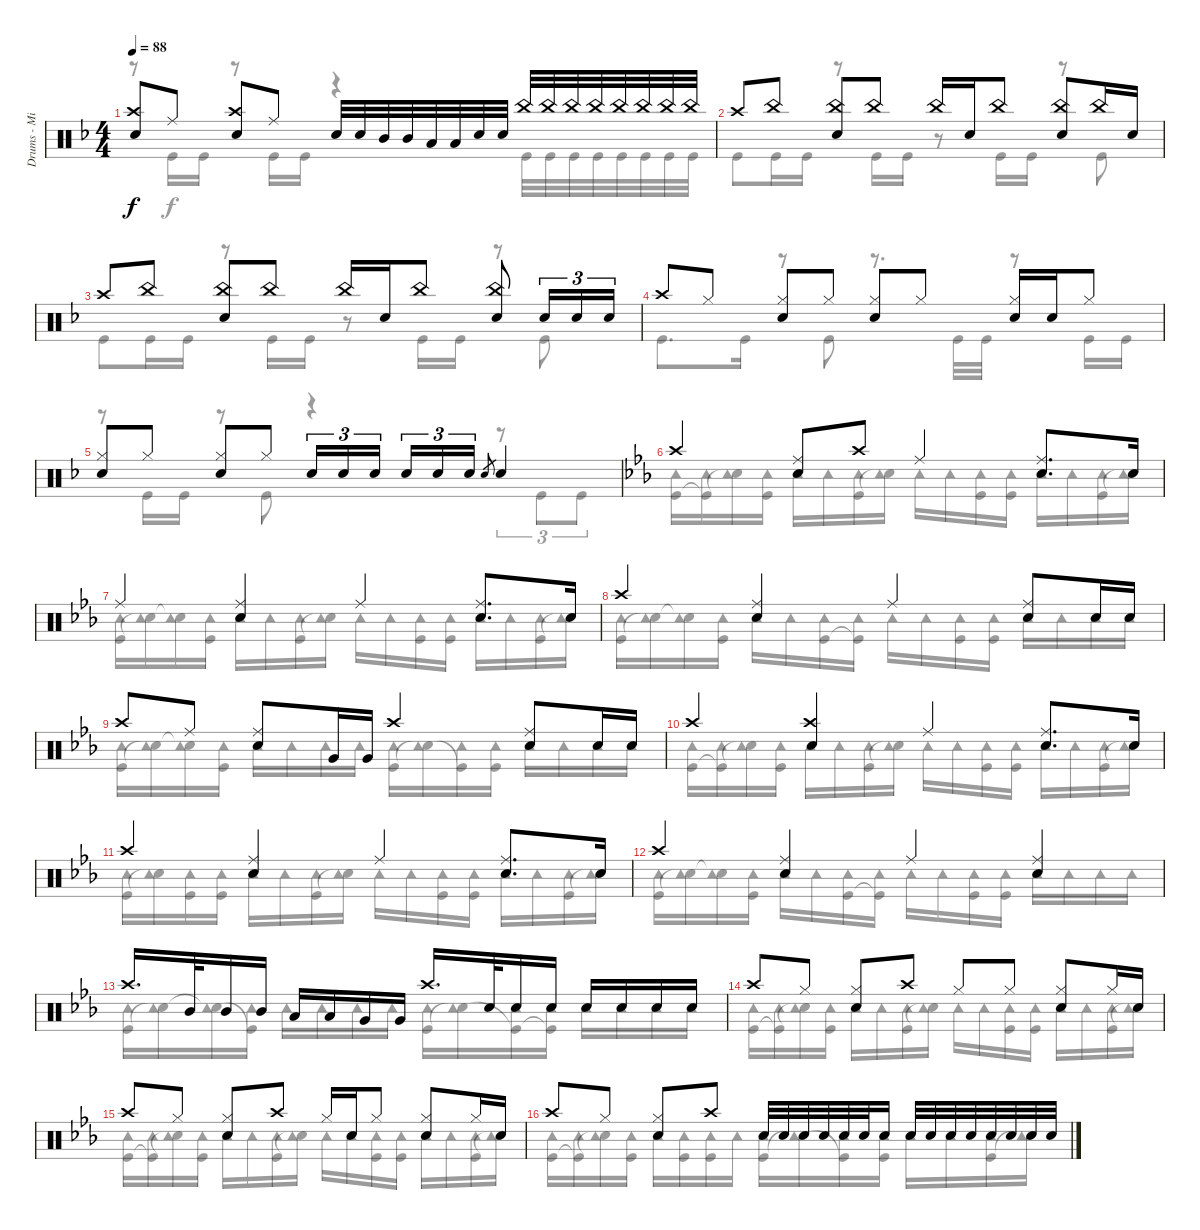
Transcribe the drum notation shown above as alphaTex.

\track ("Drums - Mike Portnoy" "Drums - Mi") {instrument percussion}
\staff {score}
\articulation defaults
\voice
\ts (4 4)
\tempo 88
\clef neutral
\ks f
("Crash high (hit)" "Snare (hit) 2").8{dy f} "Ride (middle)".8 ("Crash high (hit)" "Snare (hit) 2").8 "Ride (middle)".8 "Snare (hit) 2".32 "Snare (hit) 2".32 "Mid Tom (hit)".32 "Mid Tom (hit)".32 "Low Tom (hit)".32 "Low Tom (hit)".32 "Snare (hit) 2".32 "Snare (hit) 2".32 "China (hit)".32 "China (hit)".32 "China (hit)".32 "China (hit)".32 "China (hit)".32 "China (hit)".32 "China (hit)".32 "China (hit)".32 |
"Crash high (hit)".8 "China (hit)".8 ("China (hit)" "Snare (hit) 2").8 "China (hit)".8 "China (hit)".16 "Snare (hit) 2".16 "China (hit)".8 ("China (hit)" "Snare (hit) 2").8 "China (hit)".16 "Snare (hit) 2".16 |
"Crash high (hit)".8 "China (hit)".8 ("China (hit)" "Snare (hit) 2").8 "China (hit)".8 "China (hit)".16 "Snare (hit) 2".16 "China (hit)".8 ("China (hit)" "Snare (hit) 2").8 "Snare (hit) 2".16{tu (3 2)} "Snare (hit) 2".16{tu (3 2)} "Snare (hit) 2".16{tu (3 2)} |
"Crash high (hit)".8 "Hi-Hat (closed)".8 ("Hi-Hat (closed)" "Snare (hit) 2").8 "Hi-Hat (closed)".8 ("Hi-Hat (closed)" "Snare (hit) 2").8 "Hi-Hat (closed)".8 ("Hi-Hat (closed)" "Snare (hit) 2").16 "Snare (hit) 2".16 "Hi-Hat (closed)".8 |
("Hi-Hat (closed)" "Snare (hit) 2").8 "Hi-Hat (closed)".8 ("Hi-Hat (closed)" "Snare (hit) 2").8 "Hi-Hat (closed)".8 "Snare (hit) 2".16{tu (3 2)} "Snare (hit) 2".16{tu (3 2)} "Snare (hit) 2".16{tu (3 2) beam splitsecondary} "Snare (hit) 2".16{tu (3 2)} "Snare (hit) 2".16{tu (3 2)} "Snare (hit) 2".16{tu (3 2)} "Snare (hit) 2".8{gr} "Snare (hit) 2".4 |
\ks eb "Crash high (hit)".4
("Ride (middle)" "Snare (hit) 2").8 "Crash high (hit)".8 "Ride (middle)".4 ("Ride (middle)" "Snare (hit) 2").8{d} "Snare (hit) 2".16 |
"Ride (middle)".4 ("Ride (middle)" "Snare (hit) 2").4 "Ride (middle)".4 ("Ride (middle)" "Snare (hit) 2").8{d} "Snare (hit) 2".16 |
"Crash high (hit)".4 ("Ride (middle)" "Snare (hit) 2").4 "Ride (middle)".4 ("Ride (middle)" "Snare (hit) 2").8 "Snare (hit) 2".16 "Snare (hit) 2".16 |
"Crash high (hit)".8 "Ride (middle)".8 ("Ride (middle)" "Snare (hit) 2").8 "Very Low Tom (hit)".16 "Very Low Tom (hit)".16 "Crash high (hit)".4 ("Ride (middle)" "Snare (hit) 2").8 "Snare (hit) 2".16 "Snare (hit) 2".16 |
"Crash high (hit)".4 ("Crash high (hit)" "Snare (hit) 2").4 "Ride (middle)".4 ("Ride (middle)" "Snare (hit) 2").8{d} "Snare (hit) 2".16 |
"Crash high (hit)".4 ("Ride (middle)" "Snare (hit) 2").4 "Ride (middle)".4 ("Ride (middle)" "Snare (hit) 2").8{d} "Snare (hit) 2".16 |
"Crash high (hit)".4 ("Ride (middle)" "Snare (hit) 2").4 "Ride (middle)".4 ("Ride (middle)" "Snare (hit) 2").4 |
"Crash high (hit)".16{d} "Mid Tom (hit)".32 "Mid Tom (hit)".16 "Mid Tom (hit)".16 "Low Tom (hit)".16 "Low Tom (hit)".16 "Very Low Tom (hit)".16 "Very Low Tom (hit)".16 "Crash high (hit)".16{d} "Snare (hit) 2".32 "Snare (hit) 2".16 "Snare (hit) 2".16 "Snare (hit) 2".16 "Snare (hit) 2".16 "Snare (hit) 2".16 "Snare (hit) 2".16 |
"Crash high (hit)".8 "Hi-Hat (closed)".8 ("Hi-Hat (closed)" "Snare (hit) 2").8 "Crash high (hit)".8 "Hi-Hat (closed)".8 "Hi-Hat (closed)".8 ("Hi-Hat (closed)" "Snare (hit) 2").8 "Hi-Hat (closed)".16 "Snare (hit) 2".16 |
"Crash high (hit)".8 "Hi-Hat (closed)".8 ("Hi-Hat (closed)" "Snare (hit) 2").8 "Crash high (hit)".8 "Hi-Hat (closed)".16 "Snare (hit) 2".16 "Hi-Hat (closed)".8 ("Hi-Hat (closed)" "Snare (hit) 2").8 "Hi-Hat (closed)".16 "Snare (hit) 2".16 |
"Crash high (hit)".8 "Hi-Hat (closed)".8 ("Hi-Hat (closed)" "Snare (hit) 2").8 "Crash high (hit)".8 "Snare (hit) 2".32 "Snare (hit) 2".32 "Snare (hit) 2".32 "Snare (hit) 2".32 "Snare (hit) 2".32 "Snare (hit) 2".32 "Snare (hit) 2".16 "Snare (hit) 2".32 "Snare (hit) 2".32 "Snare (hit) 2".32 "Snare (hit) 2".32 "Snare (hit) 2".32 "Snare (hit) 2".32 "Snare (hit) 2".32 "Snare (hit) 2".32
\voice
\clef neutral
\ottava regular
\simile none
\ks f
r.8{dy f} "Kick (hit)".16 "Kick (hit)".16 r.8 "Kick (hit)".16 "Kick (hit)".16 r.4 "Kick (hit)".32 "Kick (hit)".32 "Kick (hit)".32 "Kick (hit)".32 "Kick (hit)".32 "Kick (hit)".32 "Kick (hit)".32 "Kick (hit)".32 |
"Kick (hit)".8 "Kick (hit)".16 "Kick (hit)".16 r.8 "Kick (hit)".16 "Kick (hit)".16 r.8 "Kick (hit)".16 "Kick (hit)".16 r.8 "Kick (hit)".8 |
"Kick (hit)".8 "Kick (hit)".16 "Kick (hit)".16 r.8 "Kick (hit)".16 "Kick (hit)".16 r.8 "Kick (hit)".16 "Kick (hit)".16 r.8 "Kick (hit)".8 |
"Kick (hit)".8{d} "Kick (hit)".16 r.8 "Kick (hit)".8 r.8{d} "Kick (hit)".32 "Kick (hit)".32 r.8 "Kick (hit)".16 "Kick (hit)".16 |
r.8 "Kick (hit)".16 "Kick (hit)".16 r.8 "Kick (hit)".8 r.4 r.8{tu (3 2)} "Kick (hit)".8{tu (3 2)} "Kick (hit)".8{tu (3 2)} |
\ks eb
("Kick (hit)" "Tambourine (hit)").16 ("Kick (hit)"{t} "Tambourine (hit)").16 ("Snare (hit)"{t} "Tambourine (hit)").16 ("Kick (hit)" "Tambourine (hit)").16 "Tambourine (hit)".16 "Tambourine (hit)".16 ("Kick (hit)" "Tambourine (hit)").16 ("Snare (hit)"{t} "Tambourine (hit)").16 "Tambourine (hit)".16 "Tambourine (hit)".16 ("Kick (hit)" "Tambourine (hit)").16 ("Kick (hit)" "Tambourine (hit)").16 "Tambourine (hit)".16 "Tambourine (hit)".16 ("Kick (hit)" "Tambourine (hit)").16 ("Snare (hit)"{t} "Tambourine (hit)").16 |
("Kick (hit)" "Tambourine (hit)").16 ("Snare (hit)"{t} "Tambourine (hit)").16 ("Snare (hit)"{t} "Tambourine (hit)").16 ("Kick (hit)" "Tambourine (hit)").16 "Tambourine (hit)".16 "Tambourine (hit)".16 ("Kick (hit)" "Tambourine (hit)").16 ("Snare (hit)"{t} "Tambourine (hit)").16 "Tambourine (hit)".16 "Tambourine (hit)".16 ("Kick (hit)" "Tambourine (hit)").16 ("Kick (hit)" "Tambourine (hit)").16 "Tambourine (hit)".16 "Tambourine (hit)".16 ("Kick (hit)" "Tambourine (hit)").16 ("Snare (hit)"{t} "Tambourine (hit)").16 |
("Kick (hit)" "Tambourine (hit)").16 ("Snare (hit)"{t} "Tambourine (hit)").16 ("Snare (hit)"{t} "Tambourine (hit)").16 ("Kick (hit)" "Tambourine (hit)").16 "Tambourine (hit)".16 "Tambourine (hit)".16 ("Kick (hit)" "Tambourine (hit)").16 ("Kick (hit)"{t} "Tambourine (hit)").16 "Tambourine (hit)".16 "Tambourine (hit)".16 ("Kick (hit)" "Tambourine (hit)").16 ("Kick (hit)" "Tambourine (hit)").16 "Tambourine (hit)".16 "Tambourine (hit)".16 "Tambourine (hit)".16 "Tambourine (hit)".16 |
("Kick (hit)" "Tambourine (hit)").16 ("Snare (hit)"{t} "Tambourine (hit)").16 ("Snare (hit)"{t} "Tambourine (hit)").16 ("Kick (hit)" "Tambourine (hit)").16 "Tambourine (hit)".16 "Tambourine (hit)".16 "Tambourine (hit)".16 "Tambourine (hit)".16 ("Kick (hit)" "Tambourine (hit)").16 ("Snare (hit)"{t} "Tambourine (hit)").16 ("Kick (hit)"{t} "Tambourine (hit)").16 ("Kick (hit)" "Tambourine (hit)").16 "Tambourine (hit)".16 "Tambourine (hit)".16 "Tambourine (hit)".16 "Tambourine (hit)".16 |
("Kick (hit)" "Tambourine (hit)").16 ("Kick (hit)"{t} "Tambourine (hit)").16 ("Snare (hit)"{t} "Tambourine (hit)").16 ("Kick (hit)" "Tambourine (hit)").16 "Tambourine (hit)".16 "Tambourine (hit)".16 ("Kick (hit)" "Tambourine (hit)").16 ("Snare (hit)"{t} "Tambourine (hit)").16 "Tambourine (hit)".16 "Tambourine (hit)".16 ("Kick (hit)" "Tambourine (hit)").16 ("Kick (hit)" "Tambourine (hit)").16 "Tambourine (hit)".16 "Tambourine (hit)".16 ("Kick (hit)" "Tambourine (hit)").16 ("Snare (hit)"{t} "Tambourine (hit)").16 |
("Kick (hit)" "Tambourine (hit)").16 ("Snare (hit)"{t} "Tambourine (hit)").16 ("Kick (hit)" "Tambourine (hit)").16 ("Kick (hit)" "Tambourine (hit)").16 "Tambourine (hit)".16 "Tambourine (hit)".16 ("Kick (hit)" "Tambourine (hit)").16 ("Snare (hit)"{t} "Tambourine (hit)").16 "Tambourine (hit)".16 "Tambourine (hit)".16 ("Kick (hit)" "Tambourine (hit)").16 ("Kick (hit)" "Tambourine (hit)").16 "Tambourine (hit)".16 "Tambourine (hit)".16 ("Kick (hit)" "Tambourine (hit)").16 ("Snare (hit)"{t} "Tambourine (hit)").16 |
("Kick (hit)" "Tambourine (hit)").16 ("Snare (hit)"{t} "Tambourine (hit)").16 ("Snare (hit)"{t} "Tambourine (hit)").16 ("Kick (hit)" "Tambourine (hit)").16 "Tambourine (hit)".16 "Tambourine (hit)".16 ("Kick (hit)" "Tambourine (hit)").16 ("Kick (hit)"{t} "Tambourine (hit)").16 "Tambourine (hit)".16 "Tambourine (hit)".16 ("Kick (hit)" "Tambourine (hit)").16 ("Kick (hit)" "Tambourine (hit)").16 "Tambourine (hit)".16 "Tambourine (hit)".16 "Tambourine (hit)".16 "Tambourine (hit)".16 |
("Kick (hit)" "Tambourine (hit)").16 ("Snare (hit)"{t} "Tambourine (hit)").16 ("Snare (hit)"{t} "Tambourine (hit)").16 ("Kick (hit)"{t} "Tambourine (hit)").16 "Tambourine (hit)".16 "Tambourine (hit)".16 "Tambourine (hit)".16 "Tambourine (hit)".16 ("Kick (hit)" "Tambourine (hit)").16 ("Snare (hit)"{t} "Tambourine (hit)").16 ("Kick (hit)"{t} "Tambourine (hit)").16 ("Kick (hit)"{t} "Tambourine (hit)").16 "Tambourine (hit)".16 "Tambourine (hit)".16 "Tambourine (hit)".16 "Tambourine (hit)".16 |
("Kick (hit)" "Tambourine (hit)").16 ("Kick (hit)"{t} "Tambourine (hit)").16 ("Snare (hit)"{t} "Tambourine (hit)").16 ("Kick (hit)" "Tambourine (hit)").16 "Tambourine (hit)".16 "Tambourine (hit)".16 ("Kick (hit)" "Tambourine (hit)").16 ("Snare (hit)"{t} "Tambourine (hit)").16 "Tambourine (hit)".16 "Tambourine (hit)".16 ("Kick (hit)" "Tambourine (hit)").16 ("Kick (hit)" "Tambourine (hit)").16 "Tambourine (hit)".16 "Tambourine (hit)".16 ("Kick (hit)" "Tambourine (hit)").16 ("Snare (hit)"{t} "Tambourine (hit)").16 |
("Kick (hit)" "Tambourine (hit)").16 ("Kick (hit)"{t} "Tambourine (hit)").16 ("Snare (hit)"{t} "Tambourine (hit)").16 ("Kick (hit)" "Tambourine (hit)").16 "Tambourine (hit)".16 "Tambourine (hit)".16 ("Kick (hit)" "Tambourine (hit)").16 ("Snare (hit)"{t} "Tambourine (hit)").16 "Tambourine (hit)".16 "Tambourine (hit)".16 ("Kick (hit)" "Tambourine (hit)").16 ("Kick (hit)" "Tambourine (hit)").16 "Tambourine (hit)".16 "Tambourine (hit)".16 ("Kick (hit)" "Tambourine (hit)").16 ("Snare (hit)"{t} "Tambourine (hit)").16 |
("Kick (hit)" "Tambourine (hit)").16 ("Kick (hit)"{t} "Tambourine (hit)").16 ("Snare (hit)"{t} "Tambourine (hit)").16 ("Kick (hit)" "Tambourine (hit)").16 "Tambourine (hit)".16 ("Kick (hit)" "Tambourine (hit)").16 ("Kick (hit)" "Tambourine (hit)").16 "Tambourine (hit)".16 ("Kick (hit)" "Tambourine (hit)").16 ("Snare (hit)"{t} "Tambourine (hit)").16 ("Kick (hit)"{t} "Tambourine (hit)").16 ("Kick (hit)" "Tambourine (hit)").16 "Tambourine (hit)".16 "Tambourine (hit)".16 ("Kick (hit)" "Tambourine (hit)").16 ("Snare (hit)"{t} "Tambourine (hit)").16
